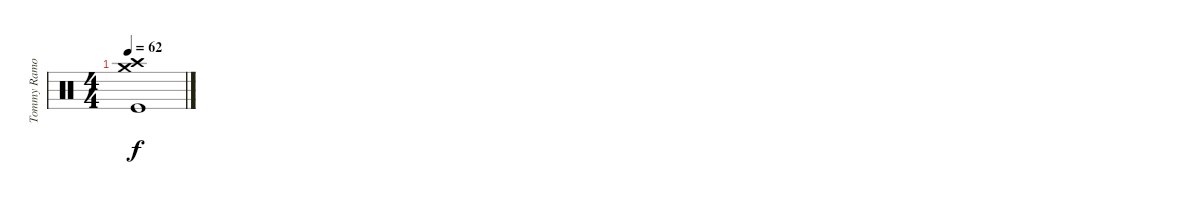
\track ("Tommy Ramone" "Tommy Ramo") {instrument percussion}
\staff {score}
\articulation defaults
\ts (4 4)
\tempo 62
\clef neutral
\ks c
("Crash high (hit)" "Crash medium (hit)" "Kick (hit)").1{dy f}
